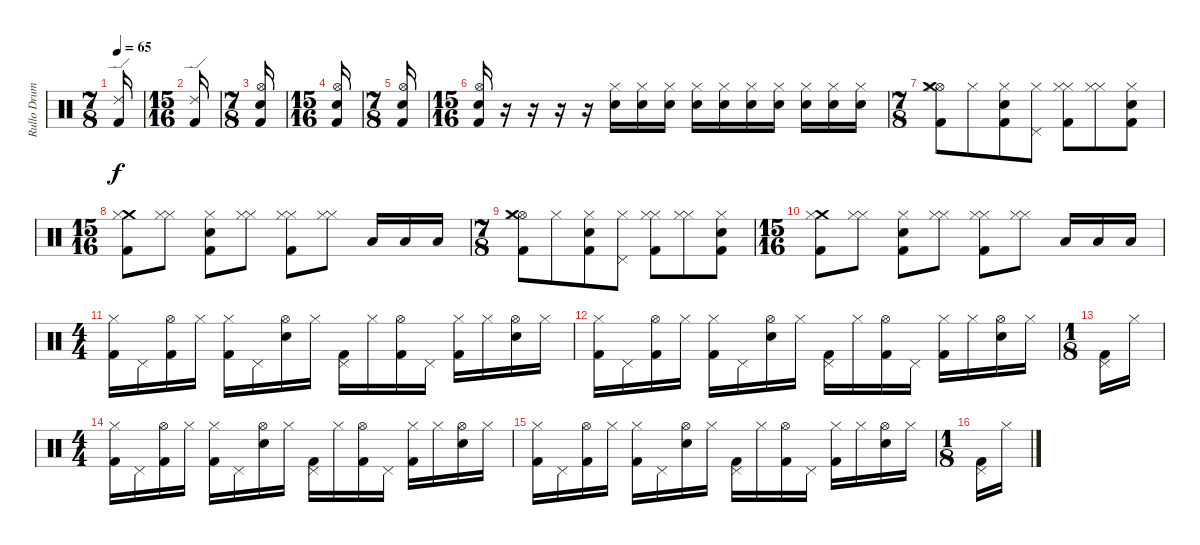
\track ("Rullo Drums" "Rullo Drum") {instrument percussion}
\staff {score}
\articulation defaults
\ts (7 8)
\tempo 65
\clef neutral
\ks c
("Kick (hit) 2" "Ride (edge) 2").16{dy f} |
\ts (15 16)
("Kick (hit) 2" "Ride (edge) 2").16 |
\ts (7 8)
("Hi-Hat (open)" "Kick (hit) 2" "Electric Snare (hit)").16 |
\ts (15 16)
("Hi-Hat (open)" "Kick (hit) 2" "Electric Snare (hit)").16 |
\ts (7 8)
("Hi-Hat (open)" "Kick (hit) 2" "Electric Snare (hit)").16 |
\ts (15 16)
("Hi-Hat (open)" "Kick (hit) 2" "Electric Snare (hit)").16 r.16 r.16 r.16 r.16 ("Snare (hit) 2" "Hi-Hat (closed)").16{volume 6} ("Snare (hit) 2" "Hi-Hat (closed)").16{volume 11} ("Snare (hit) 2" "Hi-Hat (closed)").16 ("Snare (hit) 2" "Hi-Hat (closed)").16 ("Snare (hit) 2" "Hi-Hat (closed)").16 ("Snare (hit) 2" "Hi-Hat (closed)").16 ("Snare (hit) 2" "Hi-Hat (closed)").16 ("Snare (hit) 2" "Hi-Hat (closed)").16 ("Snare (hit) 2" "Hi-Hat (closed)").16 ("Snare (hit) 2" "Hi-Hat (closed)").16 |
\ts (7 8)
("Kick (hit) 2" "Hi-Hat (open)" "Hi-Hat (closed)" "Crash medium (hit)").8 "Hi-Hat (closed)".8 ("Kick (hit) 2" "Electric Snare (hit)" "Hi-Hat (closed)").8 ("Pedal Hi-Hat (hit)" "Hi-Hat (closed)").8 ("Kick (hit) 2" "Hi-Hat (closed)" "Hi-Hat (closed)").8 ("Hi-Hat (closed)" "Hi-Hat (closed)").8 ("Kick (hit) 2" "Electric Snare (hit)" "Hi-Hat (closed)").8 |
\ts (15 16)
("Kick (hit) 2" "Crash medium (hit)" "Hi-Hat (closed)").8 ("Hi-Hat (closed)" "Hi-Hat (closed)").8 ("Kick (hit) 2" "Electric Snare (hit)" "Hi-Hat (closed)").8 ("Hi-Hat (closed)" "Hi-Hat (closed)").8 ("Kick (hit) 2" "Hi-Hat (closed)" "Hi-Hat (closed)").8 ("Hi-Hat (closed)" "Hi-Hat (closed)").8 "Low Tom (hit)".16 "Low Tom (hit)".16 "Low Tom (hit)".16 |
\ts (7 8)
("Kick (hit) 2" "Hi-Hat (open)" "Hi-Hat (closed)" "Crash medium (hit)").8 "Hi-Hat (closed)".8 ("Kick (hit) 2" "Electric Snare (hit)" "Hi-Hat (closed)").8 ("Pedal Hi-Hat (hit)" "Hi-Hat (closed)").8 ("Kick (hit) 2" "Hi-Hat (closed)" "Hi-Hat (closed)").8 ("Hi-Hat (closed)" "Hi-Hat (closed)").8 ("Kick (hit) 2" "Electric Snare (hit)" "Hi-Hat (closed)").8 |
\ts (15 16)
("Kick (hit) 2" "Crash medium (hit)" "Hi-Hat (closed)").8 ("Hi-Hat (closed)" "Hi-Hat (closed)").8 ("Kick (hit) 2" "Electric Snare (hit)" "Hi-Hat (closed)").8 ("Hi-Hat (closed)" "Hi-Hat (closed)").8 ("Kick (hit) 2" "Hi-Hat (closed)" "Hi-Hat (closed)").8 ("Hi-Hat (closed)" "Hi-Hat (closed)").8 "Low Tom (hit)".16 "Low Tom (hit)".16 "Low Tom (hit)".16 |
\ts (4 4)
("Hi-Hat (closed)" "Kick (hit) 2").16 "Pedal Hi-Hat (hit)".16 ("Hi-Hat (open)" "Kick (hit) 2").16 "Hi-Hat (closed)".16 ("Hi-Hat (closed)" "Kick (hit) 2").16 "Pedal Hi-Hat (hit)".16 ("Hi-Hat (open)" "Electric Snare (hit)").16 "Hi-Hat (closed)".16 ("Pedal Hi-Hat (hit)" "Kick (hit) 2").16 "Hi-Hat (closed)".16 ("Hi-Hat (open)" "Kick (hit) 2").16 "Pedal Hi-Hat (hit)".16 ("Hi-Hat (closed)" "Kick (hit) 2").16 "Hi-Hat (closed)".16 ("Hi-Hat (open)" "Electric Snare (hit)").16 "Hi-Hat (closed)".16 |
("Hi-Hat (closed)" "Kick (hit) 2").16 "Pedal Hi-Hat (hit)".16 ("Hi-Hat (open)" "Kick (hit) 2").16 "Hi-Hat (closed)".16 ("Hi-Hat (closed)" "Kick (hit) 2").16 "Pedal Hi-Hat (hit)".16 ("Hi-Hat (open)" "Electric Snare (hit)").16 "Hi-Hat (closed)".16 ("Pedal Hi-Hat (hit)" "Kick (hit) 2").16 "Hi-Hat (closed)".16 ("Hi-Hat (open)" "Kick (hit) 2").16 "Pedal Hi-Hat (hit)".16 ("Hi-Hat (closed)" "Kick (hit) 2").16 "Hi-Hat (closed)".16 ("Hi-Hat (open)" "Electric Snare (hit)").16 "Hi-Hat (closed)".16 |
\ts (1 8)
("Pedal Hi-Hat (hit)" "Kick (hit) 2").16 "Hi-Hat (closed)".16 |
\ts (4 4)
("Hi-Hat (closed)" "Kick (hit) 2").16 "Pedal Hi-Hat (hit)".16 ("Hi-Hat (open)" "Kick (hit) 2").16 "Hi-Hat (closed)".16 ("Hi-Hat (closed)" "Kick (hit) 2").16 "Pedal Hi-Hat (hit)".16 ("Hi-Hat (open)" "Electric Snare (hit)").16 "Hi-Hat (closed)".16 ("Pedal Hi-Hat (hit)" "Kick (hit) 2").16 "Hi-Hat (closed)".16 ("Hi-Hat (open)" "Kick (hit) 2").16 "Pedal Hi-Hat (hit)".16 ("Hi-Hat (closed)" "Kick (hit) 2").16 "Hi-Hat (closed)".16 ("Hi-Hat (open)" "Electric Snare (hit)").16 "Hi-Hat (closed)".16 |
("Hi-Hat (closed)" "Kick (hit) 2").16 "Pedal Hi-Hat (hit)".16 ("Hi-Hat (open)" "Kick (hit) 2").16 "Hi-Hat (closed)".16 ("Hi-Hat (closed)" "Kick (hit) 2").16 "Pedal Hi-Hat (hit)".16 ("Hi-Hat (open)" "Electric Snare (hit)").16 "Hi-Hat (closed)".16 ("Pedal Hi-Hat (hit)" "Kick (hit) 2").16 "Hi-Hat (closed)".16 ("Hi-Hat (open)" "Kick (hit) 2").16 "Pedal Hi-Hat (hit)".16 ("Hi-Hat (closed)" "Kick (hit) 2").16 "Hi-Hat (closed)".16 ("Hi-Hat (open)" "Electric Snare (hit)").16 "Hi-Hat (closed)".16 |
\ts (1 8)
("Pedal Hi-Hat (hit)" "Kick (hit) 2").16 "Hi-Hat (closed)".16
